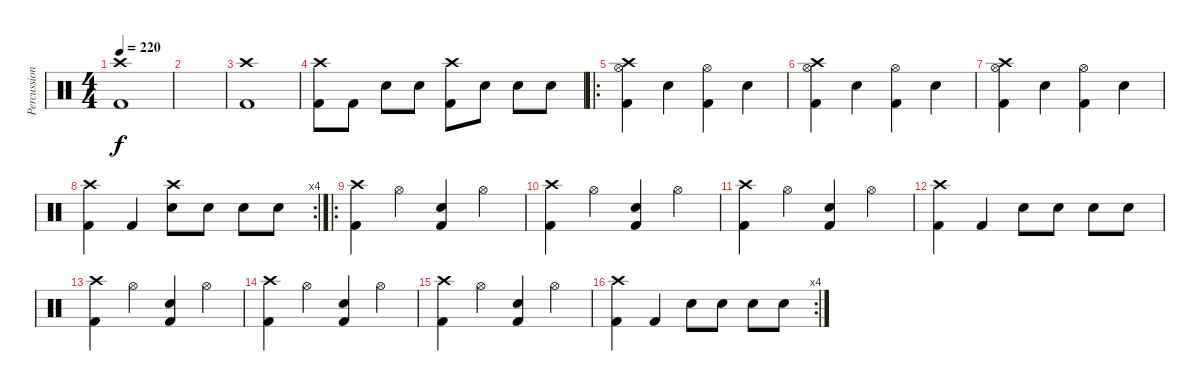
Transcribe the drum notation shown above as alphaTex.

\track ("Percussion" "Percussion") {instrument percussion}
\staff {score}
\articulation defaults
\ts (4 4)
\tempo 220
\clef neutral
\ks c
("Crash high (hit)" "Kick (hit) 2").1{dy f} |
|
("Crash high (hit)" "Kick (hit) 2").1 |
("Crash high (hit)" "Kick (hit) 2").8 "Kick (hit) 2".8 "Snare (hit) 2".8 "Snare (hit) 2".8 ("Crash high (hit)" "Kick (hit) 2").8 "Snare (hit) 2".8 "Snare (hit) 2".8 "Snare (hit) 2".8 |
\ro
("Crash high (hit)" "Hi-Hat (open)" "Kick (hit) 2").4 "Snare (hit) 2".4 ("Hi-Hat (open)" "Kick (hit) 2").4 "Snare (hit) 2".4 |
("Crash high (hit)" "Hi-Hat (open)" "Kick (hit) 2").4 "Snare (hit) 2".4 ("Hi-Hat (open)" "Kick (hit) 2").4 "Snare (hit) 2".4 |
("Crash high (hit)" "Hi-Hat (open)" "Kick (hit) 2").4 "Snare (hit) 2".4 ("Hi-Hat (open)" "Kick (hit) 2").4 "Snare (hit) 2".4 |
\rc 4
("Crash high (hit)" "Kick (hit) 2").4 "Kick (hit) 2".4 ("Crash high (hit)" "Snare (hit) 2").8 "Snare (hit) 2".8 "Snare (hit) 2".8 "Snare (hit) 2".8 |
\ro
("Crash high (hit)" "Kick (hit) 2").4 "Hi-Hat (open)".4 ("Snare (hit) 2" "Kick (hit) 2").4 "Hi-Hat (open)".4 |
("Crash high (hit)" "Kick (hit) 2").4 "Hi-Hat (open)".4 ("Snare (hit) 2" "Kick (hit) 2").4 "Hi-Hat (open)".4 |
("Crash high (hit)" "Kick (hit) 2").4 "Hi-Hat (open)".4 ("Snare (hit) 2" "Kick (hit) 2").4 "Hi-Hat (open)".4 |
("Crash high (hit)" "Kick (hit) 2").4 "Kick (hit) 2".4 "Snare (hit) 2".8 "Snare (hit) 2".8 "Snare (hit) 2".8 "Snare (hit) 2".8 |
("Crash high (hit)" "Kick (hit) 2").4 "Hi-Hat (open)".4 ("Snare (hit) 2" "Kick (hit) 2").4 "Hi-Hat (open)".4 |
("Crash high (hit)" "Kick (hit) 2").4 "Hi-Hat (open)".4 ("Snare (hit) 2" "Kick (hit) 2").4 "Hi-Hat (open)".4 |
("Crash high (hit)" "Kick (hit) 2").4 "Hi-Hat (open)".4 ("Snare (hit) 2" "Kick (hit) 2").4 "Hi-Hat (open)".4 |
\rc 4
("Crash high (hit)" "Kick (hit) 2").4 "Kick (hit) 2".4 "Snare (hit) 2".8 "Snare (hit) 2".8 "Snare (hit) 2".8 "Snare (hit) 2".8
